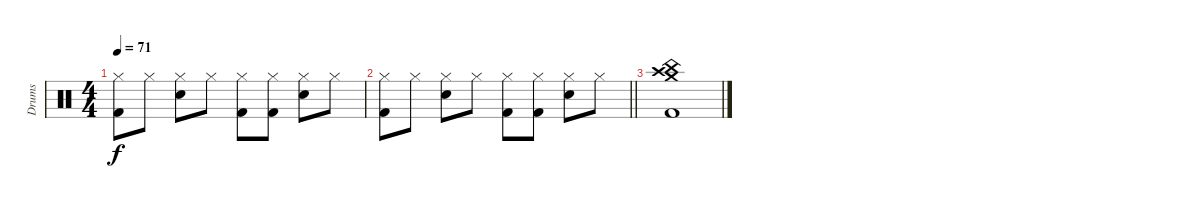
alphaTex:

\track ("Drums" "Drums") {instrument percussion}
\staff {score}
\articulation defaults
\ts (4 4)
\tempo 71
\clef neutral
\ks c
("Hi-Hat (closed)" "Kick (hit) 2").8{dy f} "Hi-Hat (closed)".8 ("Hi-Hat (closed)" "Snare (hit) 2").8 "Hi-Hat (closed)".8 ("Hi-Hat (closed)" "Kick (hit) 2").8 ("Hi-Hat (closed)" "Kick (hit) 2").8 ("Hi-Hat (closed)" "Snare (hit) 2").8 "Hi-Hat (closed)".8 |
\barLineRight lightlight
("Hi-Hat (closed)" "Kick (hit) 2").8 "Hi-Hat (closed)".8 ("Hi-Hat (closed)" "Snare (hit) 2").8 "Hi-Hat (closed)".8 ("Hi-Hat (closed)" "Kick (hit) 2").8 ("Hi-Hat (closed)" "Kick (hit) 2").8 ("Hi-Hat (closed)" "Snare (hit) 2").8 "Hi-Hat (closed)".8 |
("Crash medium (hit)" "Crash high (hit)" "China (hit)" "Kick (hit) 2").1{volume 0}
